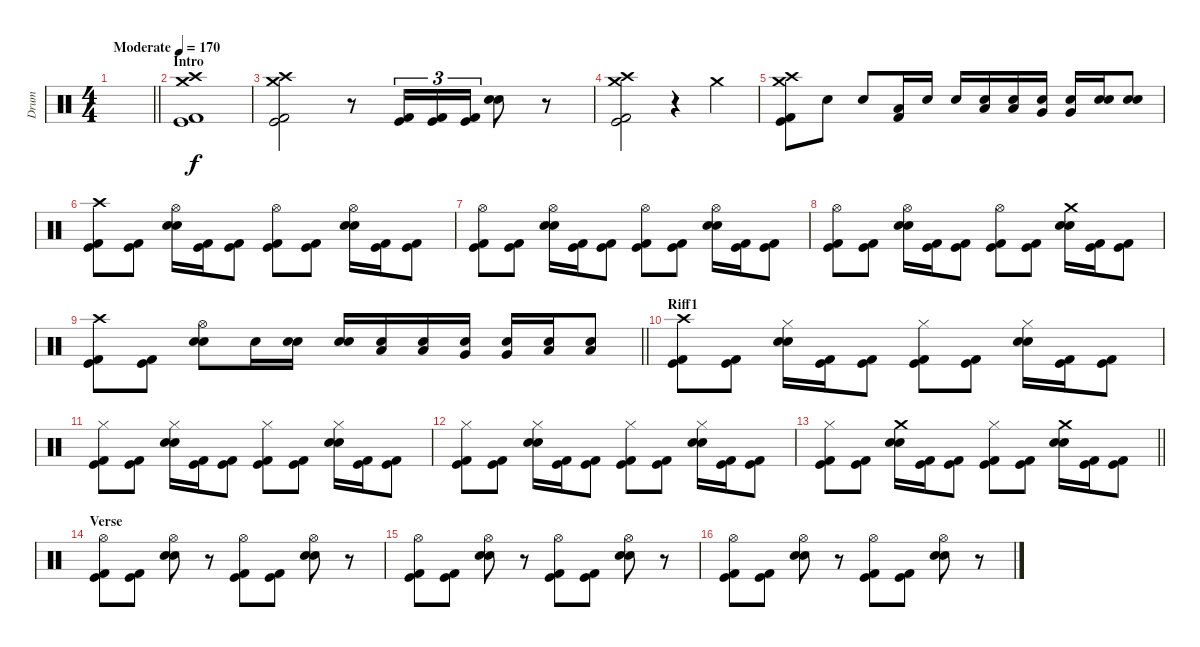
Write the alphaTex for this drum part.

\track ("Drum" "Drum") {instrument percussion}
\staff
\articulation defaults
\ts (4 4)
\tempo (170 "Moderate")
\clef neutral
\barLineRight lightlight
\ks c
|
\section ("" "Intro")
("Crash high (hit)" "Crash medium (hit)" "Kick (hit) 2" "Kick (hit)").1 |
("Crash high (hit)" "Crash medium (hit)" "Kick (hit) 2" "Kick (hit)").2 r.8 ("Kick (hit) 2" "Kick (hit)").16{tu (3 2)} ("Kick (hit) 2" "Kick (hit)").16{tu (3 2)} ("Kick (hit) 2" "Kick (hit)").16{tu (3 2)} ("Electric Snare (hit)" "Snare (hit) 2").8 r.8 |
("Crash high (hit)" "Crash medium (hit)" "Kick (hit) 2" "Kick (hit)").2 r.4 "Crash medium (hit)".4 |
("Crash high (hit)" "Crash medium (hit)" "Kick (hit) 2" "Kick (hit)").8 "Electric Snare (hit)".8 "Electric Snare (hit)".8 ("Low Floor Tom (hit)" "Kick (hit) 2").16 "Electric Snare (hit)".16 "Electric Snare (hit)".16 ("Electric Snare (hit)" "Low Floor Tom (hit)").16 ("Electric Snare (hit)" "Low Floor Tom (hit)").16 ("Electric Snare (hit)" "Very Low Tom (hit)").16 ("Electric Snare (hit)" "Very Low Tom (hit)").16 ("Electric Snare (hit)" "Snare (hit) 2").16 ("Electric Snare (hit)" "Snare (hit) 2").8 |
("Crash high (hit)" "Kick (hit) 2" "Kick (hit)").8 ("Kick (hit) 2" "Kick (hit)").8 ("Hi-Hat (open)" "Electric Snare (hit)" "Snare (hit) 2").16 ("Kick (hit) 2" "Kick (hit)").16 ("Kick (hit) 2" "Kick (hit)").8 ("Hi-Hat (open)" "Kick (hit) 2" "Kick (hit)").8 ("Kick (hit) 2" "Kick (hit)").8 ("Hi-Hat (open)" "Electric Snare (hit)" "Snare (hit) 2").16 ("Kick (hit) 2" "Kick (hit)").16 ("Kick (hit) 2" "Kick (hit)").8 |
("Hi-Hat (open)" "Kick (hit) 2" "Kick (hit)").8 ("Kick (hit) 2" "Kick (hit)").8 ("Hi-Hat (open)" "Electric Snare (hit)" "Snare (hit) 2").16 ("Kick (hit) 2" "Kick (hit)").16 ("Kick (hit) 2" "Kick (hit)").8 ("Hi-Hat (open)" "Kick (hit) 2" "Kick (hit)").8 ("Kick (hit) 2" "Kick (hit)").8 ("Hi-Hat (open)" "Electric Snare (hit)" "Snare (hit) 2").16 ("Kick (hit) 2" "Kick (hit)").16 ("Kick (hit) 2" "Kick (hit)").8 |
("Hi-Hat (open)" "Kick (hit) 2" "Kick (hit)").8 ("Kick (hit) 2" "Kick (hit)").8 ("Hi-Hat (open)" "Electric Snare (hit)" "Snare (hit) 2").16 ("Kick (hit) 2" "Kick (hit)").16 ("Kick (hit) 2" "Kick (hit)").8 ("Hi-Hat (open)" "Kick (hit) 2" "Kick (hit)").8 ("Kick (hit) 2" "Kick (hit)").8 ("Crash medium (hit)" "Electric Snare (hit)" "Snare (hit) 2").16 ("Kick (hit) 2" "Kick (hit)").16 ("Kick (hit) 2" "Kick (hit)").8 |
\barLineRight lightlight
("Crash high (hit)" "Kick (hit) 2" "Kick (hit)").8 ("Kick (hit) 2" "Kick (hit)").8 ("Hi-Hat (open)" "Electric Snare (hit)" "Snare (hit) 2").8 "Electric Snare (hit)".16 ("Electric Snare (hit)" "Snare (hit) 2").16 ("Electric Snare (hit)" "Snare (hit) 2").16 ("Electric Snare (hit)" "Low Floor Tom (hit)").16 ("Electric Snare (hit)" "Low Floor Tom (hit)").16 ("Electric Snare (hit)" "Very Low Tom (hit)").16 ("Electric Snare (hit)" "Very Low Tom (hit)").16 ("Electric Snare (hit)" "Low Floor Tom (hit)").16 ("Electric Snare (hit)" "Low Floor Tom (hit)").8 |
\section ("" "Riff1")
("Crash high (hit)" "Kick (hit) 2" "Kick (hit)").8 ("Kick (hit) 2" "Kick (hit)").8 ("Hi-Hat (closed)" "Electric Snare (hit)" "Snare (hit) 2").16 ("Kick (hit) 2" "Kick (hit)").16 ("Kick (hit) 2" "Kick (hit)").8 ("Hi-Hat (closed)" "Kick (hit) 2" "Kick (hit)").8 ("Kick (hit) 2" "Kick (hit)").8 ("Hi-Hat (closed)" "Electric Snare (hit)" "Snare (hit) 2").16 ("Kick (hit) 2" "Kick (hit)").16 ("Kick (hit) 2" "Kick (hit)").8 |
("Hi-Hat (closed)" "Kick (hit) 2" "Kick (hit)").8 ("Kick (hit) 2" "Kick (hit)").8 ("Hi-Hat (closed)" "Electric Snare (hit)" "Snare (hit) 2").16 ("Kick (hit) 2" "Kick (hit)").16 ("Kick (hit) 2" "Kick (hit)").8 ("Hi-Hat (closed)" "Kick (hit) 2" "Kick (hit)").8 ("Kick (hit) 2" "Kick (hit)").8 ("Hi-Hat (closed)" "Electric Snare (hit)" "Snare (hit) 2").16 ("Kick (hit) 2" "Kick (hit)").16 ("Kick (hit) 2" "Kick (hit)").8 |
("Hi-Hat (closed)" "Kick (hit) 2" "Kick (hit)").8 ("Kick (hit) 2" "Kick (hit)").8 ("Hi-Hat (closed)" "Electric Snare (hit)" "Snare (hit) 2").16 ("Kick (hit) 2" "Kick (hit)").16 ("Kick (hit) 2" "Kick (hit)").8 ("Hi-Hat (closed)" "Kick (hit) 2" "Kick (hit)").8 ("Kick (hit) 2" "Kick (hit)").8 ("Hi-Hat (closed)" "Electric Snare (hit)" "Snare (hit) 2").16 ("Kick (hit) 2" "Kick (hit)").16 ("Kick (hit) 2" "Kick (hit)").8 |
\barLineRight lightlight
("Hi-Hat (closed)" "Kick (hit) 2" "Kick (hit)").8 ("Kick (hit) 2" "Kick (hit)").8 ("Crash medium (hit)" "Electric Snare (hit)" "Snare (hit) 2").16 ("Kick (hit) 2" "Kick (hit)").16 ("Kick (hit) 2" "Kick (hit)").8 ("Hi-Hat (closed)" "Kick (hit) 2" "Kick (hit)").8 ("Kick (hit) 2" "Kick (hit)").8 ("Crash medium (hit)" "Electric Snare (hit)" "Snare (hit) 2").16 ("Kick (hit) 2" "Kick (hit)").16 ("Kick (hit) 2" "Kick (hit)").8 |
\section ("" "Verse")
("Hi-Hat (open)" "Kick (hit) 2" "Kick (hit)").8 ("Kick (hit) 2" "Kick (hit)").8 ("Hi-Hat (open)" "Electric Snare (hit)" "Snare (hit) 2").8 r.8 ("Hi-Hat (open)" "Kick (hit) 2" "Kick (hit)").8 ("Kick (hit) 2" "Kick (hit)").8 ("Hi-Hat (open)" "Electric Snare (hit)" "Snare (hit) 2").8 r.8 |
("Hi-Hat (open)" "Kick (hit) 2" "Kick (hit)").8 ("Kick (hit) 2" "Kick (hit)").8 ("Hi-Hat (open)" "Electric Snare (hit)" "Snare (hit) 2").8 r.8 ("Hi-Hat (open)" "Kick (hit) 2" "Kick (hit)").8 ("Kick (hit) 2" "Kick (hit)").8 ("Hi-Hat (open)" "Electric Snare (hit)" "Snare (hit) 2").8 r.8 |
("Hi-Hat (open)" "Kick (hit) 2" "Kick (hit)").8 ("Kick (hit) 2" "Kick (hit)").8 ("Hi-Hat (open)" "Electric Snare (hit)" "Snare (hit) 2").8 r.8 ("Hi-Hat (open)" "Kick (hit) 2" "Kick (hit)").8 ("Kick (hit) 2" "Kick (hit)").8 ("Hi-Hat (open)" "Electric Snare (hit)" "Snare (hit) 2").8 r.8
